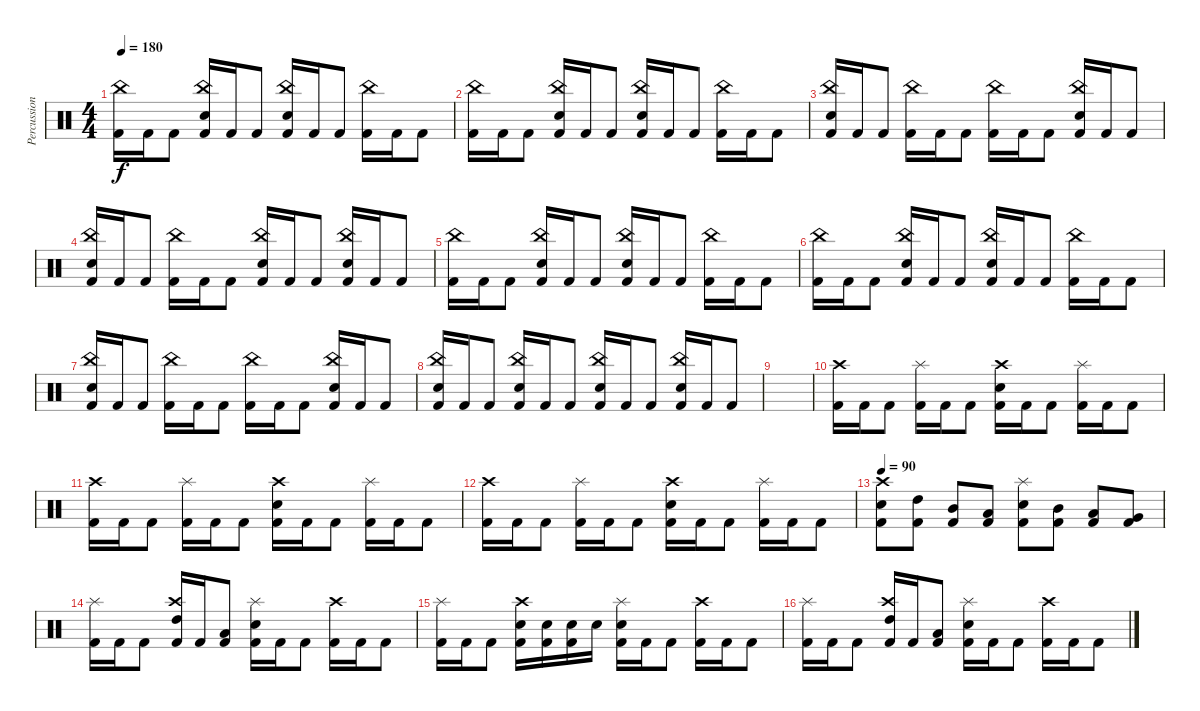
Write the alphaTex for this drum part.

\track ("Percussion" "Percussion") {instrument percussion}
\staff {score}
\articulation defaults
\ts (4 4)
\tempo 180
\clef neutral
\ks c
("Kick (hit) 2" "China (hit)").16{dy f} "Kick (hit) 2".16 "Kick (hit) 2".8 ("Kick (hit) 2" "Snare (hit) 2" "China (hit)").16 "Kick (hit) 2".16 "Kick (hit) 2".8 ("Kick (hit) 2" "Snare (hit) 2" "China (hit)").16 "Kick (hit) 2".16 "Kick (hit) 2".8 ("Kick (hit) 2" "China (hit)").16 "Kick (hit) 2".16 "Kick (hit) 2".8 |
("Kick (hit) 2" "China (hit)").16 "Kick (hit) 2".16 "Kick (hit) 2".8 ("Kick (hit) 2" "Snare (hit) 2" "China (hit)").16 "Kick (hit) 2".16 "Kick (hit) 2".8 ("Kick (hit) 2" "Snare (hit) 2" "China (hit)").16 "Kick (hit) 2".16 "Kick (hit) 2".8 ("Kick (hit) 2" "China (hit)").16 "Kick (hit) 2".16 "Kick (hit) 2".8 |
("Kick (hit) 2" "Snare (hit) 2" "China (hit)").16 "Kick (hit) 2".16 "Kick (hit) 2".8 ("Kick (hit) 2" "China (hit)").16 "Kick (hit) 2".16 "Kick (hit) 2".8 ("Kick (hit) 2" "China (hit)").16 "Kick (hit) 2".16 "Kick (hit) 2".8 ("Kick (hit) 2" "Snare (hit) 2" "China (hit)").16 "Kick (hit) 2".16 "Kick (hit) 2".8 |
("Kick (hit) 2" "Snare (hit) 2" "China (hit)").16 "Kick (hit) 2".16 "Kick (hit) 2".8 ("Kick (hit) 2" "China (hit)").16 "Kick (hit) 2".16 "Kick (hit) 2".8 ("Kick (hit) 2" "Snare (hit) 2" "China (hit)").16 "Kick (hit) 2".16 "Kick (hit) 2".8 ("Kick (hit) 2" "Snare (hit) 2" "China (hit)").16 "Kick (hit) 2".16 "Kick (hit) 2".8 |
("Kick (hit) 2" "China (hit)").16 "Kick (hit) 2".16 "Kick (hit) 2".8 ("Kick (hit) 2" "Snare (hit) 2" "China (hit)").16 "Kick (hit) 2".16 "Kick (hit) 2".8 ("Kick (hit) 2" "Snare (hit) 2" "China (hit)").16 "Kick (hit) 2".16 "Kick (hit) 2".8 ("Kick (hit) 2" "China (hit)").16 "Kick (hit) 2".16 "Kick (hit) 2".8 |
("Kick (hit) 2" "China (hit)").16 "Kick (hit) 2".16 "Kick (hit) 2".8 ("Kick (hit) 2" "Snare (hit) 2" "China (hit)").16 "Kick (hit) 2".16 "Kick (hit) 2".8 ("Kick (hit) 2" "Snare (hit) 2" "China (hit)").16 "Kick (hit) 2".16 "Kick (hit) 2".8 ("Kick (hit) 2" "China (hit)").16 "Kick (hit) 2".16 "Kick (hit) 2".8 |
("Kick (hit) 2" "Snare (hit) 2" "China (hit)").16 "Kick (hit) 2".16 "Kick (hit) 2".8 ("Kick (hit) 2" "China (hit)").16 "Kick (hit) 2".16 "Kick (hit) 2".8 ("Kick (hit) 2" "China (hit)").16 "Kick (hit) 2".16 "Kick (hit) 2".8 ("Kick (hit) 2" "Snare (hit) 2" "China (hit)").16 "Kick (hit) 2".16 "Kick (hit) 2".8 |
("Kick (hit) 2" "Snare (hit) 2" "China (hit)").16 "Kick (hit) 2".16 "Kick (hit) 2".8 ("Kick (hit) 2" "Snare (hit) 2" "China (hit)").16 "Kick (hit) 2".16 "Kick (hit) 2".8 ("Kick (hit) 2" "Snare (hit) 2" "China (hit)").16 "Kick (hit) 2".16 "Kick (hit) 2".8 ("Kick (hit) 2" "Snare (hit) 2" "China (hit)").16 "Kick (hit) 2".16 "Kick (hit) 2".8 |
|
("Kick (hit) 2" "Crash high (hit)").16 "Kick (hit) 2".16 "Kick (hit) 2".8 ("Kick (hit) 2" "Splash (hit)").16 "Kick (hit) 2".16 "Kick (hit) 2".8 ("Kick (hit) 2" "Snare (hit) 2" "Crash high (hit)").16 "Kick (hit) 2".16 "Kick (hit) 2".8 ("Kick (hit) 2" "Splash (hit)").16 "Kick (hit) 2".16 "Kick (hit) 2".8 |
("Kick (hit) 2" "Crash high (hit)").16 "Kick (hit) 2".16 "Kick (hit) 2".8 ("Kick (hit) 2" "Splash (hit)").16 "Kick (hit) 2".16 "Kick (hit) 2".8 ("Kick (hit) 2" "Snare (hit) 2" "Crash high (hit)").16 "Kick (hit) 2".16 "Kick (hit) 2".8 ("Kick (hit) 2" "Splash (hit)").16 "Kick (hit) 2".16 "Kick (hit) 2".8 |
("Kick (hit) 2" "Crash high (hit)").16 "Kick (hit) 2".16 "Kick (hit) 2".8 ("Kick (hit) 2" "Splash (hit)").16 "Kick (hit) 2".16 "Kick (hit) 2".8 ("Kick (hit) 2" "Snare (hit) 2" "Crash high (hit)").16 "Kick (hit) 2".16 "Kick (hit) 2".8 ("Kick (hit) 2" "Splash (hit)").16 "Kick (hit) 2".16 "Kick (hit) 2".8 |
\tempo 90
("Kick (hit) 2" "Snare (hit) 2" "Crash high (hit)").8 ("Kick (hit) 2" "High Tom (hit)").8 ("Kick (hit) 2" "Mid Tom (hit)").8 ("Kick (hit) 2" "Low Tom (hit)").8 ("Kick (hit) 2" "Snare (hit) 2" "Splash (hit)").8 ("Kick (hit) 2" "Mid Tom (hit)").8 ("Kick (hit) 2" "Low Tom (hit)").8 ("Kick (hit) 2" "Very Low Tom (hit)").8 |
("Kick (hit) 2" "Splash (hit)").16 "Kick (hit) 2".16 "Kick (hit) 2".8 ("Kick (hit) 2" "High Tom (hit)" "Crash high (hit)").16 "Kick (hit) 2".16 ("Kick (hit) 2" "Low Tom (hit)").8 ("Kick (hit) 2" "Snare (hit) 2" "Splash (hit)").16 "Kick (hit) 2".16 "Kick (hit) 2".8 ("Kick (hit) 2" "Crash high (hit)").16 "Kick (hit) 2".16 "Kick (hit) 2".8 |
("Kick (hit) 2" "Splash (hit)").16 "Kick (hit) 2".16 "Kick (hit) 2".8 ("Kick (hit) 2" "Snare (hit) 2" "Crash high (hit)").16 ("Kick (hit) 2" "Snare (hit) 2").16 ("Kick (hit) 2" "Snare (hit) 2").16 "Snare (hit) 2".16 ("Kick (hit) 2" "Snare (hit) 2" "Splash (hit)").16 "Kick (hit) 2".16 "Kick (hit) 2".8 ("Kick (hit) 2" "Crash high (hit)").16 "Kick (hit) 2".16 "Kick (hit) 2".8 |
("Kick (hit) 2" "Splash (hit)").16 "Kick (hit) 2".16 "Kick (hit) 2".8 ("Kick (hit) 2" "High Tom (hit)" "Crash high (hit)").16 "Kick (hit) 2".16 ("Kick (hit) 2" "Low Tom (hit)").8 ("Kick (hit) 2" "Snare (hit) 2" "Splash (hit)").16 "Kick (hit) 2".16 "Kick (hit) 2".8 ("Kick (hit) 2" "Crash high (hit)").16 "Kick (hit) 2".16 "Kick (hit) 2".8
